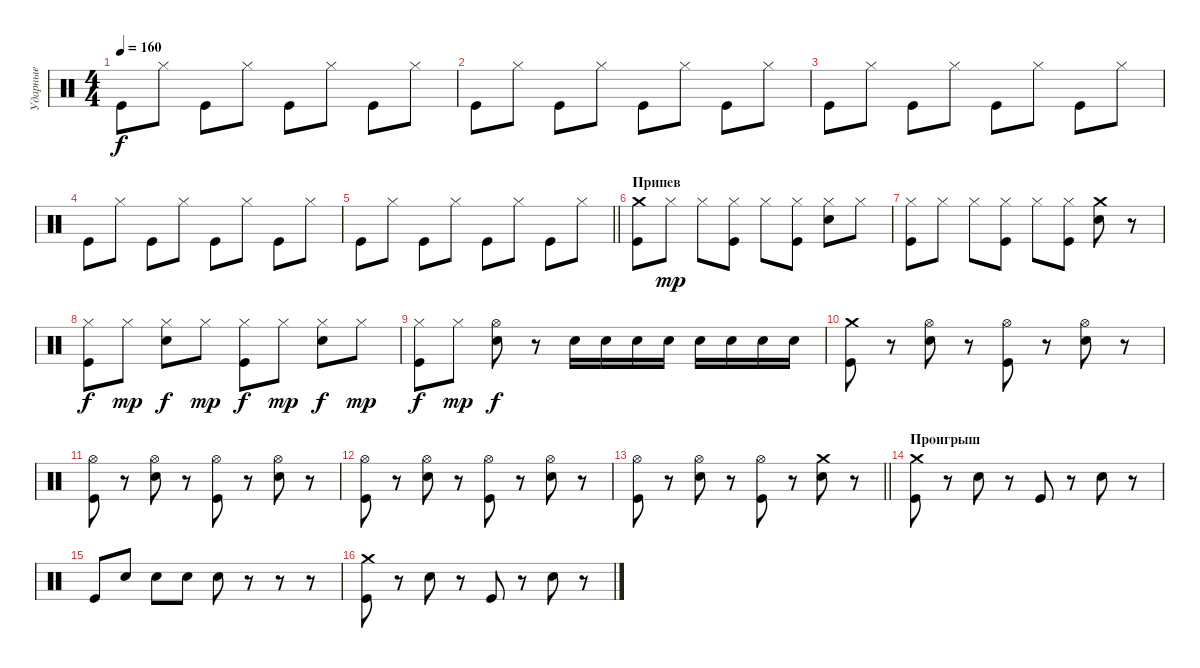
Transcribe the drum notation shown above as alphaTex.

\track ("Ударные" "Ударные") {instrument percussion}
\staff {score}
\articulation defaults
\ts (4 4)
\tempo 160
\clef neutral
\ks c "Kick (hit)".8{dy f} "Hi-Hat (closed)".8 "Kick (hit)".8 "Hi-Hat (closed)".8 "Kick (hit)".8 "Hi-Hat (closed)".8 "Kick (hit)".8 "Hi-Hat (closed)".8
|
"Kick (hit)".8 "Hi-Hat (closed)".8 "Kick (hit)".8 "Hi-Hat (closed)".8 "Kick (hit)".8 "Hi-Hat (closed)".8 "Kick (hit)".8 "Hi-Hat (closed)".8 |
"Kick (hit)".8 "Hi-Hat (closed)".8 "Kick (hit)".8 "Hi-Hat (closed)".8 "Kick (hit)".8 "Hi-Hat (closed)".8 "Kick (hit)".8 "Hi-Hat (closed)".8 |
"Kick (hit)".8 "Hi-Hat (closed)".8 "Kick (hit)".8 "Hi-Hat (closed)".8 "Kick (hit)".8 "Hi-Hat (closed)".8 "Kick (hit)".8 "Hi-Hat (closed)".8 |
\barLineRight lightlight "Kick (hit)".8 "Hi-Hat (closed)".8 "Kick (hit)".8 "Hi-Hat (closed)".8 "Kick (hit)".8 "Hi-Hat (closed)".8 "Kick (hit)".8 "Hi-Hat (closed)".8
|
\section ("" "Припев")
("Crash medium (hit)" "Kick (hit)").8 "Hi-Hat (closed)".8{dy mp} "Hi-Hat (closed)".8 ("Hi-Hat (closed)" "Kick (hit)").8 "Hi-Hat (closed)".8 ("Hi-Hat (closed)" "Kick (hit)").8 ("Hi-Hat (closed)" "Electric Snare (hit)").8 "Hi-Hat (closed)".8 |
("Hi-Hat (closed)" "Kick (hit)").8 "Hi-Hat (closed)".8 "Hi-Hat (closed)".8 ("Hi-Hat (closed)" "Kick (hit)").8 "Hi-Hat (closed)".8 ("Hi-Hat (closed)" "Kick (hit)").8 ("Crash medium (hit)" "Electric Snare (hit)").8 r.8 |
("Hi-Hat (closed)" "Kick (hit)").8{dy f} "Hi-Hat (closed)".8{dy mp} ("Hi-Hat (closed)" "Electric Snare (hit)").8{dy f} "Hi-Hat (closed)".8{dy mp} ("Hi-Hat (closed)" "Kick (hit)").8{dy f} "Hi-Hat (closed)".8{dy mp} ("Hi-Hat (closed)" "Electric Snare (hit)").8{dy f} "Hi-Hat (closed)".8{dy mp} |
("Hi-Hat (closed)" "Kick (hit)").8{dy f} "Hi-Hat (closed)".8{dy mp} ("Hi-Hat (open)" "Electric Snare (hit)").8{dy f} r.8 "Electric Snare (hit)".16 "Electric Snare (hit)".16 "Electric Snare (hit)".16 "Electric Snare (hit)".16 "Electric Snare (hit)".16 "Electric Snare (hit)".16 "Electric Snare (hit)".16 "Electric Snare (hit)".16 |
("Crash medium (hit)" "Kick (hit)").8 r.8 ("Hi-Hat (open)" "Electric Snare (hit)").8 r.8 ("Hi-Hat (open)" "Kick (hit)").8 r.8 ("Hi-Hat (open)" "Electric Snare (hit)").8 r.8 |
("Hi-Hat (open)" "Kick (hit)").8 r.8 ("Hi-Hat (open)" "Electric Snare (hit)").8 r.8 ("Hi-Hat (open)" "Kick (hit)").8 r.8 ("Hi-Hat (open)" "Electric Snare (hit)").8 r.8 |
("Hi-Hat (open)" "Kick (hit)").8 r.8 ("Hi-Hat (open)" "Electric Snare (hit)").8 r.8 ("Hi-Hat (open)" "Kick (hit)").8 r.8 ("Hi-Hat (open)" "Electric Snare (hit)").8 r.8 |
\barLineRight lightlight
("Hi-Hat (open)" "Kick (hit)").8 r.8 ("Hi-Hat (open)" "Electric Snare (hit)").8 r.8 ("Hi-Hat (open)" "Kick (hit)").8 r.8 ("Crash medium (hit)" "Electric Snare (hit)").8 r.8 |
\section ("" "Проигрыш")
("Crash medium (hit)" "Kick (hit)").8 r.8 "Electric Snare (hit)".8 r.8 "Kick (hit)".8 r.8 "Electric Snare (hit)".8 r.8 |
"Kick (hit)".8 "Electric Snare (hit)".8 "Electric Snare (hit)".8 "Electric Snare (hit)".8 "Electric Snare (hit)".8 r.8 r.8 r.8 |
("Crash medium (hit)" "Kick (hit)").8 r.8 "Electric Snare (hit)".8 r.8 "Kick (hit)".8 r.8 "Electric Snare (hit)".8 r.8
